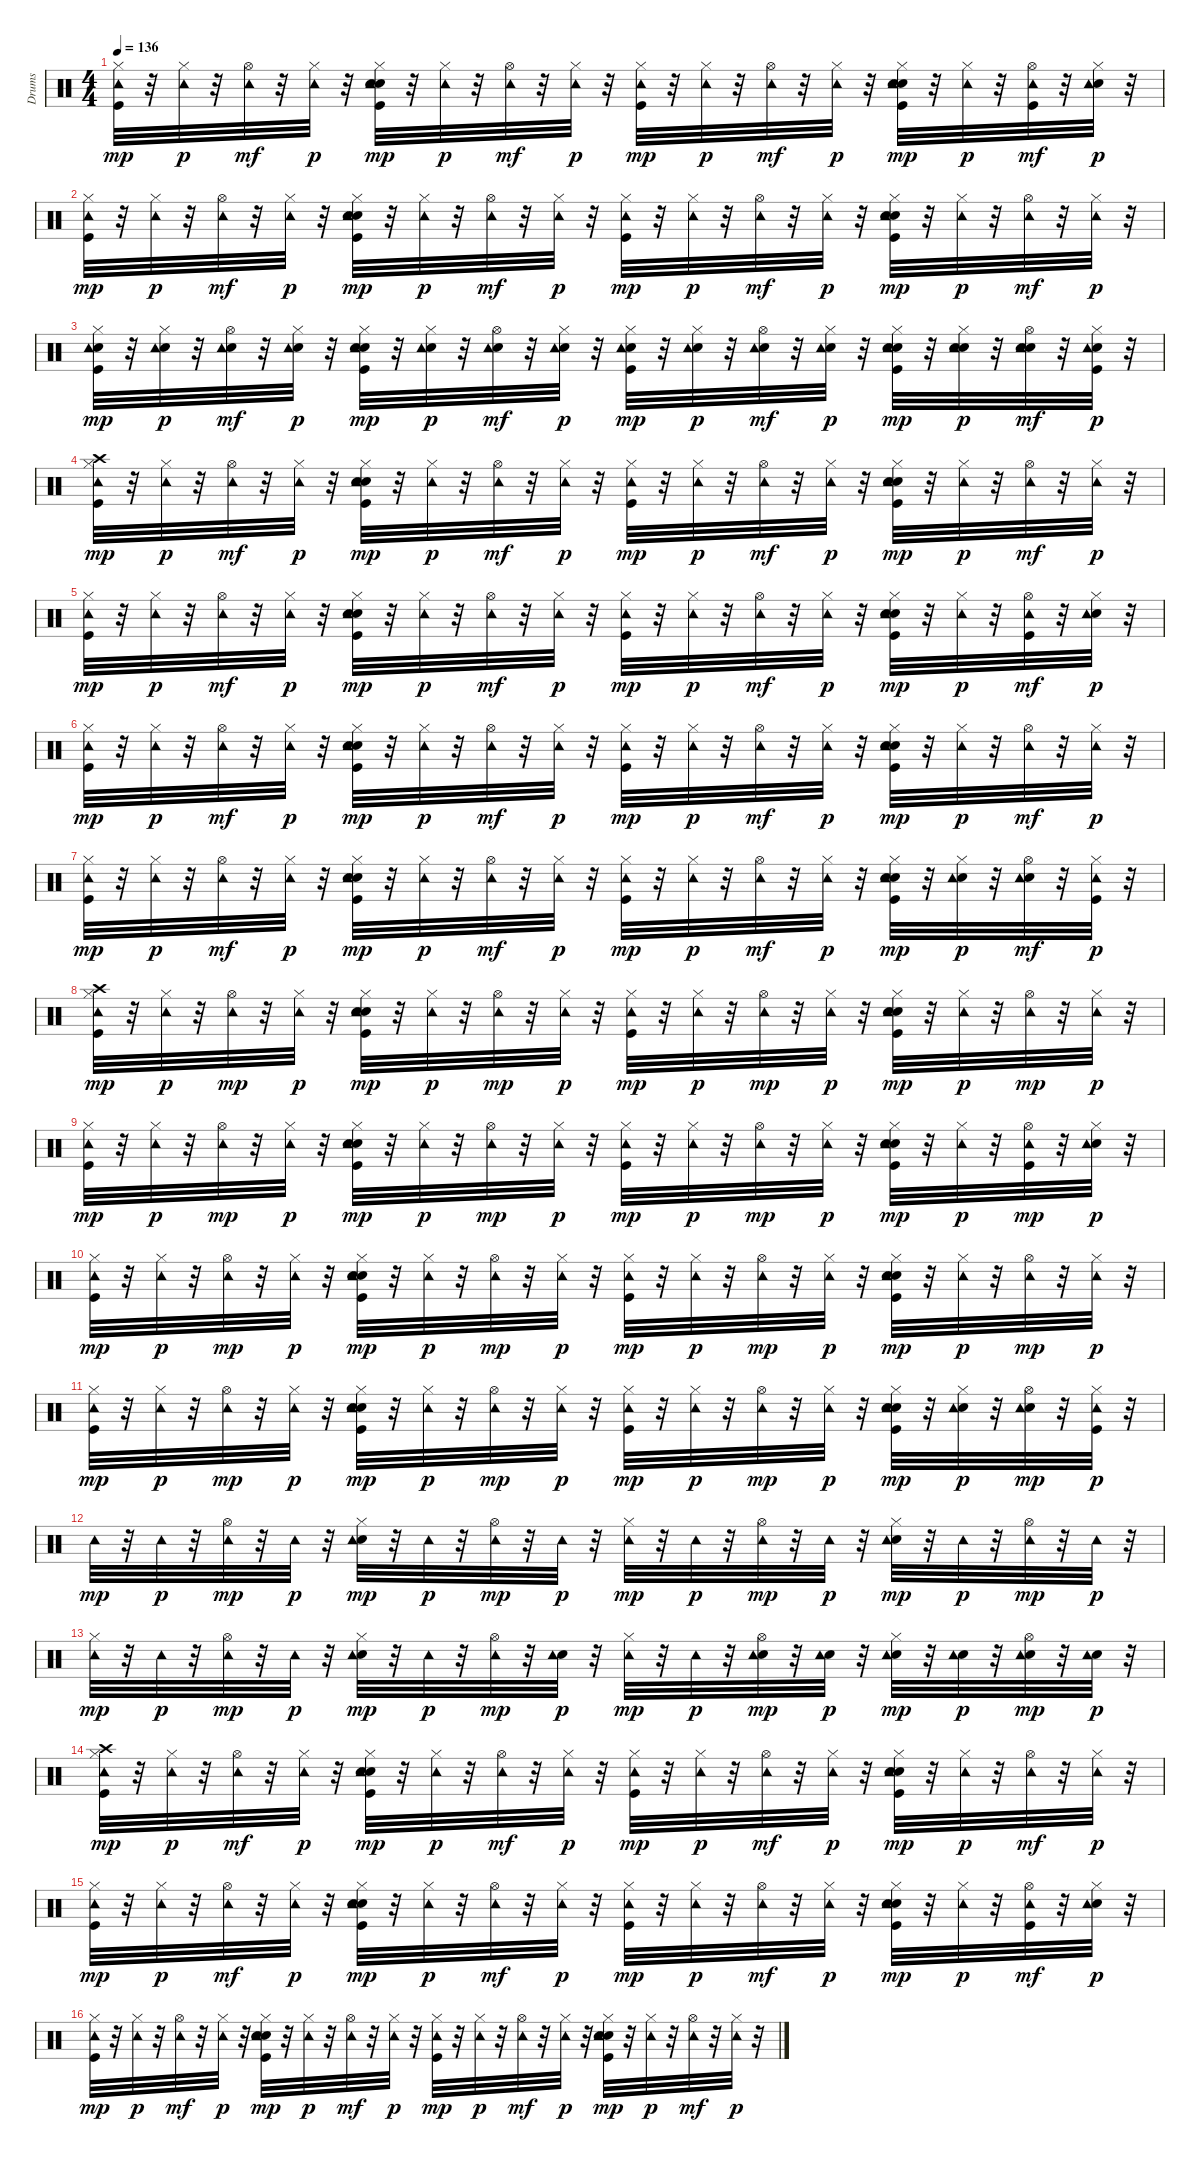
\track ("Drums" "Drums") {instrument percussion}
\staff {score}
\articulation defaults
\ts (4 4)
\tempo 136
\clef neutral
\ks c
("Kick (hit)" "Hi-Hat (closed)" "Tambourine (hit)").32{dy mp} r.32 ("Hi-Hat (closed)" "Tambourine (hit)").32{dy p} r.32 ("Hi-Hat (open)" "Tambourine (hit)").32{dy mf} r.32 ("Hi-Hat (closed)" "Tambourine (hit)").32{dy p} r.32 ("Kick (hit)" "Snare (hit) 2" "Hand Clap (hit)" "Hi-Hat (closed)" "Tambourine (hit)").32{dy mp} r.32 ("Hi-Hat (closed)" "Tambourine (hit)").32{dy p} r.32 ("Hi-Hat (open)" "Tambourine (hit)").32{dy mf} r.32 ("Hi-Hat (closed)" "Tambourine (hit)").32{dy p} r.32 ("Kick (hit)" "Hi-Hat (closed)" "Tambourine (hit)").32{dy mp} r.32 ("Hi-Hat (closed)" "Tambourine (hit)").32{dy p} r.32 ("Hi-Hat (open)" "Tambourine (hit)").32{dy mf} r.32 ("Hi-Hat (closed)" "Tambourine (hit)").32{dy p} r.32 ("Kick (hit)" "Snare (hit) 2" "Hand Clap (hit)" "Hi-Hat (closed)" "Tambourine (hit)").32{dy mp} r.32 ("Hi-Hat (closed)" "Tambourine (hit)").32{dy p} r.32 ("Kick (hit)" "Hi-Hat (open)" "Tambourine (hit)").32{dy mf} r.32 ("Hand Clap (hit)" "Hi-Hat (closed)" "Tambourine (hit)").32{dy p} r.32 |
("Kick (hit)" "Hi-Hat (closed)" "Tambourine (hit)").32{dy mp} r.32 ("Hi-Hat (closed)" "Tambourine (hit)").32{dy p} r.32 ("Hi-Hat (open)" "Tambourine (hit)").32{dy mf} r.32 ("Hi-Hat (closed)" "Tambourine (hit)").32{dy p} r.32 ("Kick (hit)" "Snare (hit) 2" "Hand Clap (hit)" "Hi-Hat (closed)" "Tambourine (hit)").32{dy mp} r.32 ("Hi-Hat (closed)" "Tambourine (hit)").32{dy p} r.32 ("Hi-Hat (open)" "Tambourine (hit)").32{dy mf} r.32 ("Hi-Hat (closed)" "Tambourine (hit)").32{dy p} r.32 ("Kick (hit)" "Hi-Hat (closed)" "Tambourine (hit)").32{dy mp} r.32 ("Hi-Hat (closed)" "Tambourine (hit)").32{dy p} r.32 ("Hi-Hat (open)" "Tambourine (hit)").32{dy mf} r.32 ("Hi-Hat (closed)" "Tambourine (hit)").32{dy p} r.32 ("Kick (hit)" "Snare (hit) 2" "Hand Clap (hit)" "Hi-Hat (closed)" "Tambourine (hit)").32{dy mp} r.32 ("Hi-Hat (closed)" "Tambourine (hit)").32{dy p} r.32 ("Hi-Hat (open)" "Tambourine (hit)").32{dy mf} r.32 ("Hi-Hat (closed)" "Tambourine (hit)").32{dy p} r.32 |
("Kick (hit)" "Snare (hit) 2" "Hi-Hat (closed)" "Tambourine (hit)").32{dy mp} r.32 ("Snare (hit) 2" "Hi-Hat (closed)" "Tambourine (hit)").32{dy p} r.32 ("Snare (hit) 2" "Hi-Hat (open)" "Tambourine (hit)").32{dy mf} r.32 ("Snare (hit) 2" "Hi-Hat (closed)" "Tambourine (hit)").32{dy p} r.32 ("Kick (hit)" "Snare (hit) 2" "Hand Clap (hit)" "Hi-Hat (closed)" "Tambourine (hit)").32{dy mp} r.32 ("Snare (hit) 2" "Hi-Hat (closed)" "Tambourine (hit)").32{dy p} r.32 ("Snare (hit) 2" "Hi-Hat (open)" "Tambourine (hit)").32{dy mf} r.32 ("Snare (hit) 2" "Hi-Hat (closed)" "Tambourine (hit)").32{dy p} r.32 ("Kick (hit)" "Snare (hit) 2" "Hi-Hat (closed)" "Tambourine (hit)").32{dy mp} r.32 ("Snare (hit) 2" "Hi-Hat (closed)" "Tambourine (hit)").32{dy p} r.32 ("Snare (hit) 2" "Hi-Hat (open)" "Tambourine (hit)").32{dy mf} r.32 ("Snare (hit) 2" "Hi-Hat (closed)" "Tambourine (hit)").32{dy p} r.32 ("Kick (hit)" "Snare (hit) 2" "Hand Clap (hit)" "Hi-Hat (closed)" "Tambourine (hit)").32{dy mp} r.32 ("Snare (hit) 2" "Hand Clap (hit)" "Hi-Hat (closed)" "Tambourine (hit)").32{dy p} r.32 ("Snare (hit) 2" "Hand Clap (hit)" "Hi-Hat (open)" "Tambourine (hit)").32{dy mf} r.32 ("Kick (hit)" "Snare (hit) 2" "Hi-Hat (closed)" "Tambourine (hit)").32{dy p} r.32 |
("Kick (hit)" "Hi-Hat (closed)" "Crash high (hit)" "Tambourine (hit)").32{dy mp} r.32 ("Hi-Hat (closed)" "Tambourine (hit)").32{dy p} r.32 ("Hi-Hat (open)" "Tambourine (hit)").32{dy mf} r.32 ("Hi-Hat (closed)" "Tambourine (hit)").32{dy p} r.32 ("Kick (hit)" "Snare (hit) 2" "Hand Clap (hit)" "Hi-Hat (closed)" "Tambourine (hit)").32{dy mp} r.32 ("Hi-Hat (closed)" "Tambourine (hit)").32{dy p} r.32 ("Hi-Hat (open)" "Tambourine (hit)").32{dy mf} r.32 ("Hi-Hat (closed)" "Tambourine (hit)").32{dy p} r.32 ("Kick (hit)" "Hi-Hat (closed)" "Tambourine (hit)").32{dy mp} r.32 ("Hi-Hat (closed)" "Tambourine (hit)").32{dy p} r.32 ("Hi-Hat (open)" "Tambourine (hit)").32{dy mf} r.32 ("Hi-Hat (closed)" "Tambourine (hit)").32{dy p} r.32 ("Kick (hit)" "Snare (hit) 2" "Hand Clap (hit)" "Hi-Hat (closed)" "Tambourine (hit)").32{dy mp} r.32 ("Hi-Hat (closed)" "Tambourine (hit)").32{dy p} r.32 ("Hi-Hat (open)" "Tambourine (hit)").32{dy mf} r.32 ("Hi-Hat (closed)" "Tambourine (hit)").32{dy p} r.32 |
("Kick (hit)" "Hi-Hat (closed)" "Tambourine (hit)").32{dy mp} r.32 ("Hi-Hat (closed)" "Tambourine (hit)").32{dy p} r.32 ("Hi-Hat (open)" "Tambourine (hit)").32{dy mf} r.32 ("Hi-Hat (closed)" "Tambourine (hit)").32{dy p} r.32 ("Kick (hit)" "Snare (hit) 2" "Hand Clap (hit)" "Hi-Hat (closed)" "Tambourine (hit)").32{dy mp} r.32 ("Hi-Hat (closed)" "Tambourine (hit)").32{dy p} r.32 ("Hi-Hat (open)" "Tambourine (hit)").32{dy mf} r.32 ("Hi-Hat (closed)" "Tambourine (hit)").32{dy p} r.32 ("Kick (hit)" "Hi-Hat (closed)" "Tambourine (hit)").32{dy mp} r.32 ("Hi-Hat (closed)" "Tambourine (hit)").32{dy p} r.32 ("Hi-Hat (open)" "Tambourine (hit)").32{dy mf} r.32 ("Hi-Hat (closed)" "Tambourine (hit)").32{dy p} r.32 ("Kick (hit)" "Snare (hit) 2" "Hand Clap (hit)" "Hi-Hat (closed)" "Tambourine (hit)").32{dy mp} r.32 ("Hi-Hat (closed)" "Tambourine (hit)").32{dy p} r.32 ("Kick (hit)" "Hi-Hat (open)" "Tambourine (hit)").32{dy mf} r.32 ("Hand Clap (hit)" "Hi-Hat (closed)" "Tambourine (hit)").32{dy p} r.32 |
("Kick (hit)" "Hi-Hat (closed)" "Tambourine (hit)").32{dy mp} r.32 ("Hi-Hat (closed)" "Tambourine (hit)").32{dy p} r.32 ("Hi-Hat (open)" "Tambourine (hit)").32{dy mf} r.32 ("Hi-Hat (closed)" "Tambourine (hit)").32{dy p} r.32 ("Kick (hit)" "Snare (hit) 2" "Hand Clap (hit)" "Hi-Hat (closed)" "Tambourine (hit)").32{dy mp} r.32 ("Hi-Hat (closed)" "Tambourine (hit)").32{dy p} r.32 ("Hi-Hat (open)" "Tambourine (hit)").32{dy mf} r.32 ("Hi-Hat (closed)" "Tambourine (hit)").32{dy p} r.32 ("Kick (hit)" "Hi-Hat (closed)" "Tambourine (hit)").32{dy mp} r.32 ("Hi-Hat (closed)" "Tambourine (hit)").32{dy p} r.32 ("Hi-Hat (open)" "Tambourine (hit)").32{dy mf} r.32 ("Hi-Hat (closed)" "Tambourine (hit)").32{dy p} r.32 ("Kick (hit)" "Snare (hit) 2" "Hand Clap (hit)" "Hi-Hat (closed)" "Tambourine (hit)").32{dy mp} r.32 ("Hi-Hat (closed)" "Tambourine (hit)").32{dy p} r.32 ("Hi-Hat (open)" "Tambourine (hit)").32{dy mf} r.32 ("Hi-Hat (closed)" "Tambourine (hit)").32{dy p} r.32 |
("Kick (hit)" "Hi-Hat (closed)" "Tambourine (hit)").32{dy mp} r.32 ("Hi-Hat (closed)" "Tambourine (hit)").32{dy p} r.32 ("Hi-Hat (open)" "Tambourine (hit)").32{dy mf} r.32 ("Hi-Hat (closed)" "Tambourine (hit)").32{dy p} r.32 ("Kick (hit)" "Snare (hit) 2" "Hand Clap (hit)" "Hi-Hat (closed)" "Tambourine (hit)").32{dy mp} r.32 ("Hi-Hat (closed)" "Tambourine (hit)").32{dy p} r.32 ("Hi-Hat (open)" "Tambourine (hit)").32{dy mf} r.32 ("Hi-Hat (closed)" "Tambourine (hit)").32{dy p} r.32 ("Kick (hit)" "Hi-Hat (closed)" "Tambourine (hit)").32{dy mp} r.32 ("Hi-Hat (closed)" "Tambourine (hit)").32{dy p} r.32 ("Hi-Hat (open)" "Tambourine (hit)").32{dy mf} r.32 ("Hi-Hat (closed)" "Tambourine (hit)").32{dy p} r.32 ("Kick (hit)" "Snare (hit) 2" "Hand Clap (hit)" "Hi-Hat (closed)" "Tambourine (hit)").32{dy mp} r.32 ("Hand Clap (hit)" "Hi-Hat (closed)" "Tambourine (hit)").32{dy p} r.32 ("Hand Clap (hit)" "Hi-Hat (open)" "Tambourine (hit)").32{dy mf} r.32 ("Kick (hit)" "Hi-Hat (closed)" "Tambourine (hit)").32{dy p} r.32 |
("Kick (hit)" "Hi-Hat (closed)" "Crash high (hit)" "Tambourine (hit)").32{dy mp} r.32 ("Hi-Hat (closed)" "Tambourine (hit)").32{dy p} r.32 ("Hi-Hat (open)" "Tambourine (hit)").32{dy mp} r.32 ("Hi-Hat (closed)" "Tambourine (hit)").32{dy p} r.32 ("Kick (hit)" "Snare (hit) 2" "Hand Clap (hit)" "Hi-Hat (closed)" "Tambourine (hit)").32{dy mp} r.32 ("Hi-Hat (closed)" "Tambourine (hit)").32{dy p} r.32 ("Hi-Hat (open)" "Tambourine (hit)").32{dy mp} r.32 ("Hi-Hat (closed)" "Tambourine (hit)").32{dy p} r.32 ("Kick (hit)" "Hi-Hat (closed)" "Tambourine (hit)").32{dy mp} r.32 ("Hi-Hat (closed)" "Tambourine (hit)").32{dy p} r.32 ("Hi-Hat (open)" "Tambourine (hit)").32{dy mp} r.32 ("Hi-Hat (closed)" "Tambourine (hit)").32{dy p} r.32 ("Kick (hit)" "Snare (hit) 2" "Hand Clap (hit)" "Hi-Hat (closed)" "Tambourine (hit)").32{dy mp} r.32 ("Hi-Hat (closed)" "Tambourine (hit)").32{dy p} r.32 ("Hi-Hat (open)" "Tambourine (hit)").32{dy mp} r.32 ("Hi-Hat (closed)" "Tambourine (hit)").32{dy p} r.32 |
("Kick (hit)" "Hi-Hat (closed)" "Tambourine (hit)").32{dy mp} r.32 ("Hi-Hat (closed)" "Tambourine (hit)").32{dy p} r.32 ("Hi-Hat (open)" "Tambourine (hit)").32{dy mp} r.32 ("Hi-Hat (closed)" "Tambourine (hit)").32{dy p} r.32 ("Kick (hit)" "Snare (hit) 2" "Hand Clap (hit)" "Hi-Hat (closed)" "Tambourine (hit)").32{dy mp} r.32 ("Hi-Hat (closed)" "Tambourine (hit)").32{dy p} r.32 ("Hi-Hat (open)" "Tambourine (hit)").32{dy mp} r.32 ("Hi-Hat (closed)" "Tambourine (hit)").32{dy p} r.32 ("Kick (hit)" "Hi-Hat (closed)" "Tambourine (hit)").32{dy mp} r.32 ("Hi-Hat (closed)" "Tambourine (hit)").32{dy p} r.32 ("Hi-Hat (open)" "Tambourine (hit)").32{dy mp} r.32 ("Hi-Hat (closed)" "Tambourine (hit)").32{dy p} r.32 ("Kick (hit)" "Snare (hit) 2" "Hand Clap (hit)" "Hi-Hat (closed)" "Tambourine (hit)").32{dy mp} r.32 ("Hi-Hat (closed)" "Tambourine (hit)").32{dy p} r.32 ("Kick (hit)" "Hi-Hat (open)" "Tambourine (hit)").32{dy mp} r.32 ("Hand Clap (hit)" "Hi-Hat (closed)" "Tambourine (hit)").32{dy p} r.32 |
("Kick (hit)" "Hi-Hat (closed)" "Tambourine (hit)").32{dy mp} r.32 ("Hi-Hat (closed)" "Tambourine (hit)").32{dy p} r.32 ("Hi-Hat (open)" "Tambourine (hit)").32{dy mp} r.32 ("Hi-Hat (closed)" "Tambourine (hit)").32{dy p} r.32 ("Kick (hit)" "Snare (hit) 2" "Hand Clap (hit)" "Hi-Hat (closed)" "Tambourine (hit)").32{dy mp} r.32 ("Hi-Hat (closed)" "Tambourine (hit)").32{dy p} r.32 ("Hi-Hat (open)" "Tambourine (hit)").32{dy mp} r.32 ("Hi-Hat (closed)" "Tambourine (hit)").32{dy p} r.32 ("Kick (hit)" "Hi-Hat (closed)" "Tambourine (hit)").32{dy mp} r.32 ("Hi-Hat (closed)" "Tambourine (hit)").32{dy p} r.32 ("Hi-Hat (open)" "Tambourine (hit)").32{dy mp} r.32 ("Hi-Hat (closed)" "Tambourine (hit)").32{dy p} r.32 ("Kick (hit)" "Snare (hit) 2" "Hand Clap (hit)" "Hi-Hat (closed)" "Tambourine (hit)").32{dy mp} r.32 ("Hi-Hat (closed)" "Tambourine (hit)").32{dy p} r.32 ("Hi-Hat (open)" "Tambourine (hit)").32{dy mp} r.32 ("Hi-Hat (closed)" "Tambourine (hit)").32{dy p} r.32 |
("Kick (hit)" "Hi-Hat (closed)" "Tambourine (hit)").32{dy mp} r.32 ("Hi-Hat (closed)" "Tambourine (hit)").32{dy p} r.32 ("Hi-Hat (open)" "Tambourine (hit)").32{dy mp} r.32 ("Hi-Hat (closed)" "Tambourine (hit)").32{dy p} r.32 ("Kick (hit)" "Snare (hit) 2" "Hand Clap (hit)" "Hi-Hat (closed)" "Tambourine (hit)").32{dy mp} r.32 ("Hi-Hat (closed)" "Tambourine (hit)").32{dy p} r.32 ("Hi-Hat (open)" "Tambourine (hit)").32{dy mp} r.32 ("Hi-Hat (closed)" "Tambourine (hit)").32{dy p} r.32 ("Kick (hit)" "Hi-Hat (closed)" "Tambourine (hit)").32{dy mp} r.32 ("Hi-Hat (closed)" "Tambourine (hit)").32{dy p} r.32 ("Hi-Hat (open)" "Tambourine (hit)").32{dy mp} r.32 ("Hi-Hat (closed)" "Tambourine (hit)").32{dy p} r.32 ("Kick (hit)" "Snare (hit) 2" "Hand Clap (hit)" "Hi-Hat (closed)" "Tambourine (hit)").32{dy mp} r.32 ("Hand Clap (hit)" "Hi-Hat (closed)" "Tambourine (hit)").32{dy p} r.32 ("Hand Clap (hit)" "Hi-Hat (open)" "Tambourine (hit)").32{dy mp} r.32 ("Kick (hit)" "Hi-Hat (closed)" "Tambourine (hit)").32{dy p} r.32 |
"Tambourine (hit)".32{dy mp} r.32 "Tambourine (hit)".32{dy p} r.32 ("Hi-Hat (open)" "Tambourine (hit)").32{dy mp} r.32 "Tambourine (hit)".32{dy p} r.32 ("Snare (hit) 2" "Hi-Hat (closed)" "Tambourine (hit)").32{dy mp} r.32 "Tambourine (hit)".32{dy p} r.32 ("Hi-Hat (open)" "Tambourine (hit)").32{dy mp} r.32 "Tambourine (hit)".32{dy p} r.32 ("Hi-Hat (closed)" "Tambourine (hit)").32{dy mp} r.32 "Tambourine (hit)".32{dy p} r.32 ("Hi-Hat (open)" "Tambourine (hit)").32{dy mp} r.32 "Tambourine (hit)".32{dy p} r.32 ("Snare (hit) 2" "Hi-Hat (closed)" "Tambourine (hit)").32{dy mp} r.32 "Tambourine (hit)".32{dy p} r.32 ("Hi-Hat (open)" "Tambourine (hit)").32{dy mp} r.32 "Tambourine (hit)".32{dy p} r.32 |
("Hi-Hat (closed)" "Tambourine (hit)").32{dy mp} r.32 "Tambourine (hit)".32{dy p} r.32 ("Hi-Hat (open)" "Tambourine (hit)").32{dy mp} r.32 "Tambourine (hit)".32{dy p} r.32 ("Snare (hit) 2" "Hi-Hat (closed)" "Tambourine (hit)").32{dy mp} r.32 "Tambourine (hit)".32{dy p} r.32 ("Hi-Hat (open)" "Tambourine (hit)").32{dy mp} r.32 ("Snare (hit) 2" "Tambourine (hit)").32{dy p} r.32 ("Hi-Hat (closed)" "Tambourine (hit)").32{dy mp} r.32 "Tambourine (hit)".32{dy p} r.32 ("Snare (hit) 2" "Hi-Hat (open)" "Tambourine (hit)").32{dy mp} r.32 ("Snare (hit) 2" "Tambourine (hit)").32{dy p} r.32 ("Snare (hit) 2" "Hi-Hat (closed)" "Tambourine (hit)").32{dy mp} r.32 ("Snare (hit) 2" "Tambourine (hit)").32{dy p} r.32 ("Snare (hit) 2" "Hi-Hat (open)" "Tambourine (hit)").32{dy mp} r.32 ("Snare (hit) 2" "Tambourine (hit)").32{dy p} r.32 |
("Kick (hit)" "Hi-Hat (closed)" "Crash high (hit)" "Tambourine (hit)").32{dy mp} r.32 ("Hi-Hat (closed)" "Tambourine (hit)").32{dy p} r.32 ("Hi-Hat (open)" "Tambourine (hit)").32{dy mf} r.32 ("Hi-Hat (closed)" "Tambourine (hit)").32{dy p} r.32 ("Kick (hit)" "Snare (hit) 2" "Hand Clap (hit)" "Hi-Hat (closed)" "Tambourine (hit)").32{dy mp} r.32 ("Hi-Hat (closed)" "Tambourine (hit)").32{dy p} r.32 ("Hi-Hat (open)" "Tambourine (hit)").32{dy mf} r.32 ("Hi-Hat (closed)" "Tambourine (hit)").32{dy p} r.32 ("Kick (hit)" "Hi-Hat (closed)" "Tambourine (hit)").32{dy mp} r.32 ("Hi-Hat (closed)" "Tambourine (hit)").32{dy p} r.32 ("Hi-Hat (open)" "Tambourine (hit)").32{dy mf} r.32 ("Hi-Hat (closed)" "Tambourine (hit)").32{dy p} r.32 ("Kick (hit)" "Snare (hit) 2" "Hand Clap (hit)" "Hi-Hat (closed)" "Tambourine (hit)").32{dy mp} r.32 ("Hi-Hat (closed)" "Tambourine (hit)").32{dy p} r.32 ("Hi-Hat (open)" "Tambourine (hit)").32{dy mf} r.32 ("Hi-Hat (closed)" "Tambourine (hit)").32{dy p} r.32 |
("Kick (hit)" "Hi-Hat (closed)" "Tambourine (hit)").32{dy mp} r.32 ("Hi-Hat (closed)" "Tambourine (hit)").32{dy p} r.32 ("Hi-Hat (open)" "Tambourine (hit)").32{dy mf} r.32 ("Hi-Hat (closed)" "Tambourine (hit)").32{dy p} r.32 ("Kick (hit)" "Snare (hit) 2" "Hand Clap (hit)" "Hi-Hat (closed)" "Tambourine (hit)").32{dy mp} r.32 ("Hi-Hat (closed)" "Tambourine (hit)").32{dy p} r.32 ("Hi-Hat (open)" "Tambourine (hit)").32{dy mf} r.32 ("Hi-Hat (closed)" "Tambourine (hit)").32{dy p} r.32 ("Kick (hit)" "Hi-Hat (closed)" "Tambourine (hit)").32{dy mp} r.32 ("Hi-Hat (closed)" "Tambourine (hit)").32{dy p} r.32 ("Hi-Hat (open)" "Tambourine (hit)").32{dy mf} r.32 ("Hi-Hat (closed)" "Tambourine (hit)").32{dy p} r.32 ("Kick (hit)" "Snare (hit) 2" "Hand Clap (hit)" "Hi-Hat (closed)" "Tambourine (hit)").32{dy mp} r.32 ("Hi-Hat (closed)" "Tambourine (hit)").32{dy p} r.32 ("Kick (hit)" "Hi-Hat (open)" "Tambourine (hit)").32{dy mf} r.32 ("Hand Clap (hit)" "Hi-Hat (closed)" "Tambourine (hit)").32{dy p} r.32 |
("Kick (hit)" "Hi-Hat (closed)" "Tambourine (hit)").32{dy mp} r.32 ("Hi-Hat (closed)" "Tambourine (hit)").32{dy p} r.32 ("Hi-Hat (open)" "Tambourine (hit)").32{dy mf} r.32 ("Hi-Hat (closed)" "Tambourine (hit)").32{dy p} r.32 ("Kick (hit)" "Snare (hit) 2" "Hand Clap (hit)" "Hi-Hat (closed)" "Tambourine (hit)").32{dy mp} r.32 ("Hi-Hat (closed)" "Tambourine (hit)").32{dy p} r.32 ("Hi-Hat (open)" "Tambourine (hit)").32{dy mf} r.32 ("Hi-Hat (closed)" "Tambourine (hit)").32{dy p} r.32 ("Kick (hit)" "Hi-Hat (closed)" "Tambourine (hit)").32{dy mp} r.32 ("Hi-Hat (closed)" "Tambourine (hit)").32{dy p} r.32 ("Hi-Hat (open)" "Tambourine (hit)").32{dy mf} r.32 ("Hi-Hat (closed)" "Tambourine (hit)").32{dy p} r.32 ("Kick (hit)" "Snare (hit) 2" "Hand Clap (hit)" "Hi-Hat (closed)" "Tambourine (hit)").32{dy mp} r.32 ("Hi-Hat (closed)" "Tambourine (hit)").32{dy p} r.32 ("Hi-Hat (open)" "Tambourine (hit)").32{dy mf} r.32 ("Hi-Hat (closed)" "Tambourine (hit)").32{dy p} r.32
